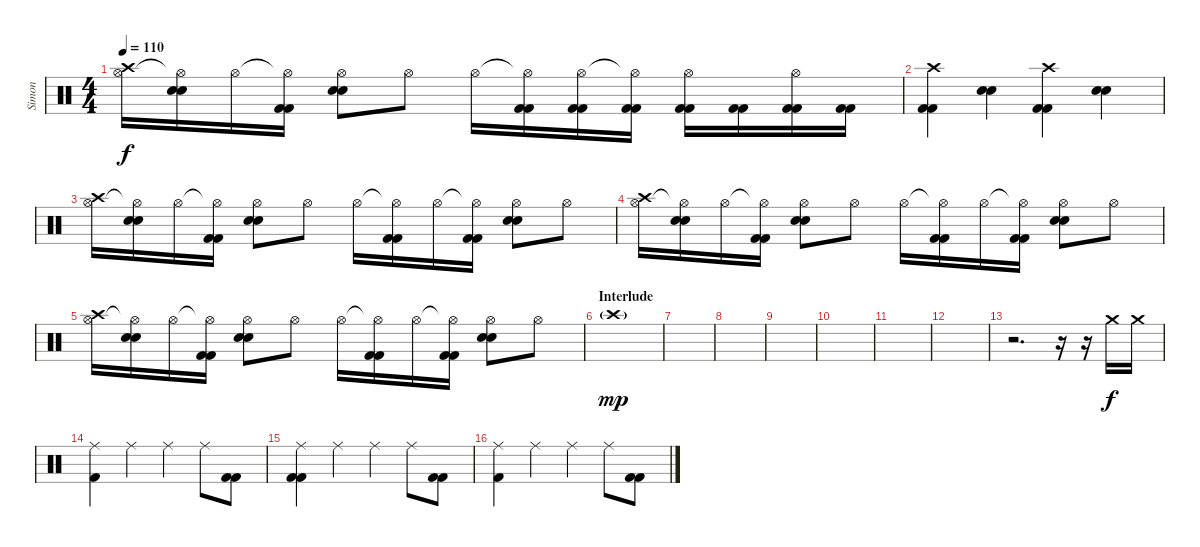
\track ("Simon" "Simon") {instrument percussion}
\staff {score}
\articulation defaults
\ts (4 4)
\tempo 110
\clef neutral
\ks c
("Hi-Hat (open)" "Crash high (hit)").16{dy f} ("Hi-Hat (open)"{t} "Electric Snare (hit)" "Electric Snare (hit)").16 "Hi-Hat (open)".16 ("Hi-Hat (open)"{t} "Kick (hit) 2" "Kick (hit) 2").16 ("Hi-Hat (open)" "Electric Snare (hit)" "Electric Snare (hit)").8 "Hi-Hat (open)".8 "Hi-Hat (open)".16 ("Hi-Hat (open)"{t} "Kick (hit) 2" "Kick (hit) 2").16 ("Hi-Hat (open)" "Kick (hit) 2" "Kick (hit) 2").16 ("Hi-Hat (open)"{t} "Kick (hit) 2" "Kick (hit) 2").16 ("Hi-Hat (open)" "Kick (hit) 2" "Kick (hit) 2").16 ("Kick (hit) 2" "Kick (hit) 2").16 ("Hi-Hat (open)" "Kick (hit) 2" "Kick (hit) 2").16 ("Kick (hit) 2" "Kick (hit) 2").16 |
("Crash high (hit)" "Kick (hit) 2" "Kick (hit) 2").4 ("Electric Snare (hit)" "Electric Snare (hit)").4 ("Crash high (hit)" "Kick (hit) 2" "Kick (hit) 2").4 ("Electric Snare (hit)" "Electric Snare (hit)").4 |
("Hi-Hat (open)" "Crash high (hit)").16 ("Hi-Hat (open)"{t} "Electric Snare (hit)" "Electric Snare (hit)").16 "Hi-Hat (open)".16 ("Hi-Hat (open)"{t} "Kick (hit) 2" "Kick (hit) 2").16 ("Hi-Hat (open)" "Electric Snare (hit)" "Electric Snare (hit)").8 "Hi-Hat (open)".8 "Hi-Hat (open)".16 ("Hi-Hat (open)"{t} "Kick (hit) 2" "Kick (hit) 2").16 "Hi-Hat (open)".16 ("Hi-Hat (open)"{t} "Kick (hit) 2" "Kick (hit) 2").16 ("Hi-Hat (open)" "Electric Snare (hit)" "Electric Snare (hit)").8 "Hi-Hat (open)".8 |
("Hi-Hat (open)" "Crash high (hit)").16 ("Hi-Hat (open)"{t} "Electric Snare (hit)" "Electric Snare (hit)").16 "Hi-Hat (open)".16 ("Hi-Hat (open)"{t} "Kick (hit) 2" "Kick (hit) 2").16 ("Hi-Hat (open)" "Electric Snare (hit)" "Electric Snare (hit)").8 "Hi-Hat (open)".8 "Hi-Hat (open)".16 ("Hi-Hat (open)"{t} "Kick (hit) 2" "Kick (hit) 2").16 "Hi-Hat (open)".16 ("Hi-Hat (open)"{t} "Kick (hit) 2" "Kick (hit) 2").16 ("Hi-Hat (open)" "Electric Snare (hit)" "Electric Snare (hit)").8 "Hi-Hat (open)".8 |
("Hi-Hat (open)" "Crash high (hit)").16 ("Hi-Hat (open)"{t} "Electric Snare (hit)" "Electric Snare (hit)").16 "Hi-Hat (open)".16 ("Hi-Hat (open)"{t} "Kick (hit) 2" "Kick (hit) 2").16 ("Hi-Hat (open)" "Electric Snare (hit)" "Electric Snare (hit)").8 "Hi-Hat (open)".8 "Hi-Hat (open)".16 ("Hi-Hat (open)"{t} "Kick (hit) 2" "Kick (hit) 2").16 "Hi-Hat (open)".16 ("Hi-Hat (open)"{t} "Kick (hit) 2" "Kick (hit) 2").16 ("Hi-Hat (open)" "Electric Snare (hit)" "Electric Snare (hit)").8 "Hi-Hat (open)".8 |
\section ("" "Interlude")
"Crash high (hit)"{g}.1{dy mp} |
|
|
|
|
|
|
r.2{d} r.16 r.16 "Crash medium (hit)".16{dy f volume 10} "Crash medium (hit)".16 |
("Ride (middle)" "Kick (hit) 2").4 "Ride (middle)".4 "Ride (middle)".4 "Ride (middle)".8 ("Kick (hit) 2" "Kick (hit) 2").8 |
("Ride (middle)" "Kick (hit) 2" "Kick (hit) 2").4 "Ride (middle)".4 "Ride (middle)".4 "Ride (middle)".8 ("Kick (hit) 2" "Kick (hit) 2").8 |
("Ride (middle)" "Kick (hit) 2").4 "Ride (middle)".4 "Ride (middle)".4 "Ride (middle)".8 ("Kick (hit) 2" "Kick (hit) 2").8
